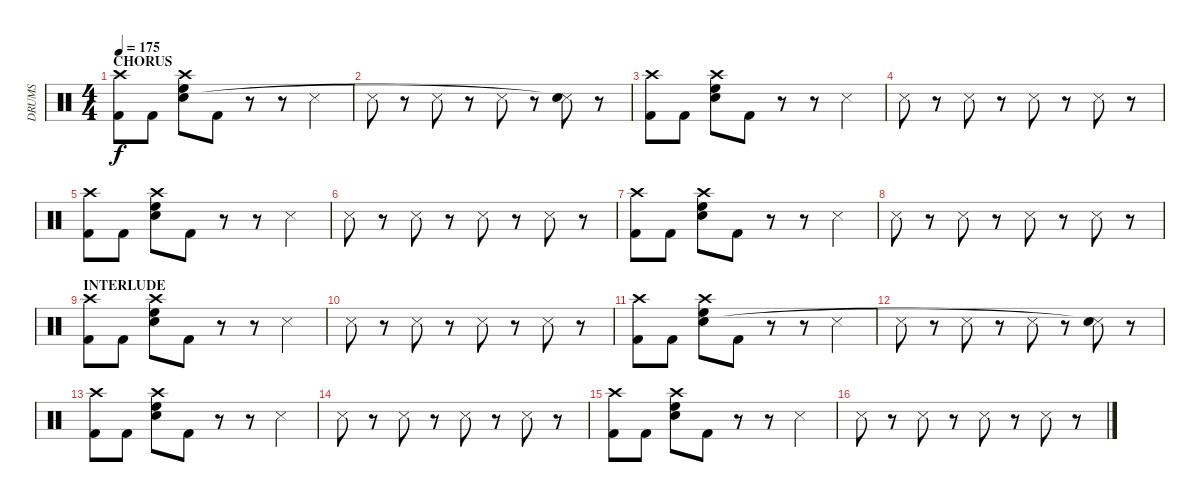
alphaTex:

\track ("DRUMS" "DRUMS") {instrument percussion}
\staff {score}
\articulation defaults
\ts (4 4)
\section ("" "CHORUS")
\tempo 175
\clef neutral
\ks c
("Kick (hit) 2" "Crash high (hit)").8{dy f} "Kick (hit) 2".8 ("High Floor Tom (hit)" "Electric Snare (hit)" "Crash high (hit)").8 "Kick (hit) 2".8 r.8 r.8 "Metronome (hit)".4 |
"Metronome (hit)".8 r.8 "Metronome (hit)".8 r.8 "Metronome (hit)".8 r.8 ("Metronome (hit)" "Snare (hit)"{t}).8 r.8 |
("Kick (hit) 2" "Crash high (hit)").8 "Kick (hit) 2".8 ("High Floor Tom (hit)" "Electric Snare (hit)" "Crash high (hit)").8 "Kick (hit) 2".8 r.8 r.8 "Metronome (hit)".4 |
"Metronome (hit)".8 r.8 "Metronome (hit)".8 r.8 "Metronome (hit)".8 r.8 "Metronome (hit)".8 r.8 |
("Kick (hit) 2" "Crash high (hit)").8 "Kick (hit) 2".8 ("High Floor Tom (hit)" "Electric Snare (hit)" "Crash high (hit)").8 "Kick (hit) 2".8 r.8 r.8 "Metronome (hit)".4 |
"Metronome (hit)".8 r.8 "Metronome (hit)".8 r.8 "Metronome (hit)".8 r.8 "Metronome (hit)".8 r.8 |
("Kick (hit) 2" "Crash high (hit)").8 "Kick (hit) 2".8 ("High Floor Tom (hit)" "Electric Snare (hit)" "Crash high (hit)").8 "Kick (hit) 2".8 r.8 r.8 "Metronome (hit)".4 |
"Metronome (hit)".8 r.8 "Metronome (hit)".8 r.8 "Metronome (hit)".8 r.8 "Metronome (hit)".8 r.8 |
\section ("" "INTERLUDE")
("Kick (hit) 2" "Crash high (hit)").8 "Kick (hit) 2".8 ("High Floor Tom (hit)" "Electric Snare (hit)" "Crash high (hit)").8 "Kick (hit) 2".8 r.8 r.8 "Metronome (hit)".4 |
"Metronome (hit)".8 r.8 "Metronome (hit)".8 r.8 "Metronome (hit)".8 r.8 "Metronome (hit)".8 r.8 |
("Kick (hit) 2" "Crash high (hit)").8 "Kick (hit) 2".8 ("High Floor Tom (hit)" "Electric Snare (hit)" "Crash high (hit)").8 "Kick (hit) 2".8 r.8 r.8 "Metronome (hit)".4 |
"Metronome (hit)".8 r.8 "Metronome (hit)".8 r.8 "Metronome (hit)".8 r.8 ("Metronome (hit)" "Snare (hit)"{t}).8 r.8 |
("Kick (hit) 2" "Crash high (hit)").8 "Kick (hit) 2".8 ("High Floor Tom (hit)" "Electric Snare (hit)" "Crash high (hit)").8 "Kick (hit) 2".8 r.8 r.8 "Metronome (hit)".4 |
"Metronome (hit)".8 r.8 "Metronome (hit)".8 r.8 "Metronome (hit)".8 r.8 "Metronome (hit)".8 r.8 |
("Kick (hit) 2" "Crash high (hit)").8 "Kick (hit) 2".8 ("High Floor Tom (hit)" "Electric Snare (hit)" "Crash high (hit)").8 "Kick (hit) 2".8 r.8 r.8 "Metronome (hit)".4 |
"Metronome (hit)".8 r.8 "Metronome (hit)".8 r.8 "Metronome (hit)".8 r.8 "Metronome (hit)".8 r.8
